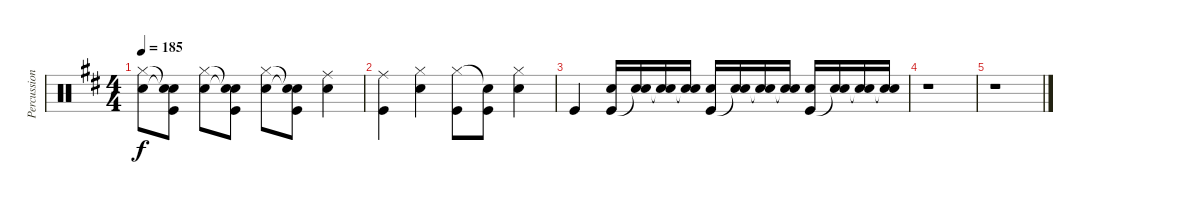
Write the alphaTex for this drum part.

\track ("Percussion" "Percussion") {instrument percussion}
\staff {score}
\articulation defaults
\ts (4 4)
\tempo 185
\clef neutral
\ks d
("Hi-Hat (closed)" "Snare (hit) 2").8{dy f} ("Snare (hit)"{t} "Snare (hit)"{t} "Kick (hit)").8 ("Hi-Hat (closed)" "Snare (hit) 2").8 ("Snare (hit)"{t} "Snare (hit)"{t} "Kick (hit)").8 ("Hi-Hat (closed)" "Snare (hit) 2").8 ("Snare (hit)"{t} "Snare (hit)"{t} "Kick (hit)").8 ("Ride (middle)" "Snare (hit) 2").4 |
("Ride (middle)" "Kick (hit)").4 ("Hi-Hat (closed)" "Snare (hit) 2").4 ("Hi-Hat (closed)" "Kick (hit)").8 ("Snare (hit)"{t} "Kick (hit)").8 ("Hi-Hat (closed)" "Snare (hit) 2").4 |
"Kick (hit)".4 ("Snare (hit) 2" "Kick (hit)").16 ("Snare (hit) 2" "Snare (hit)"{t}).16 ("Snare (hit) 2" "Snare (hit)"{t}).16 ("Snare (hit) 2" "Snare (hit)"{t}).16 ("Snare (hit) 2" "Kick (hit)").16 ("Snare (hit) 2" "Snare (hit)"{t}).16 ("Snare (hit) 2" "Snare (hit)"{t}).16 ("Snare (hit) 2" "Snare (hit)"{t}).16 ("Snare (hit) 2" "Kick (hit)").16 ("Snare (hit) 2" "Snare (hit)"{t}).16 ("Snare (hit) 2" "Snare (hit)"{t}).16 ("Snare (hit) 2" "Snare (hit)"{t}).16 |
r.1 |
r.1
